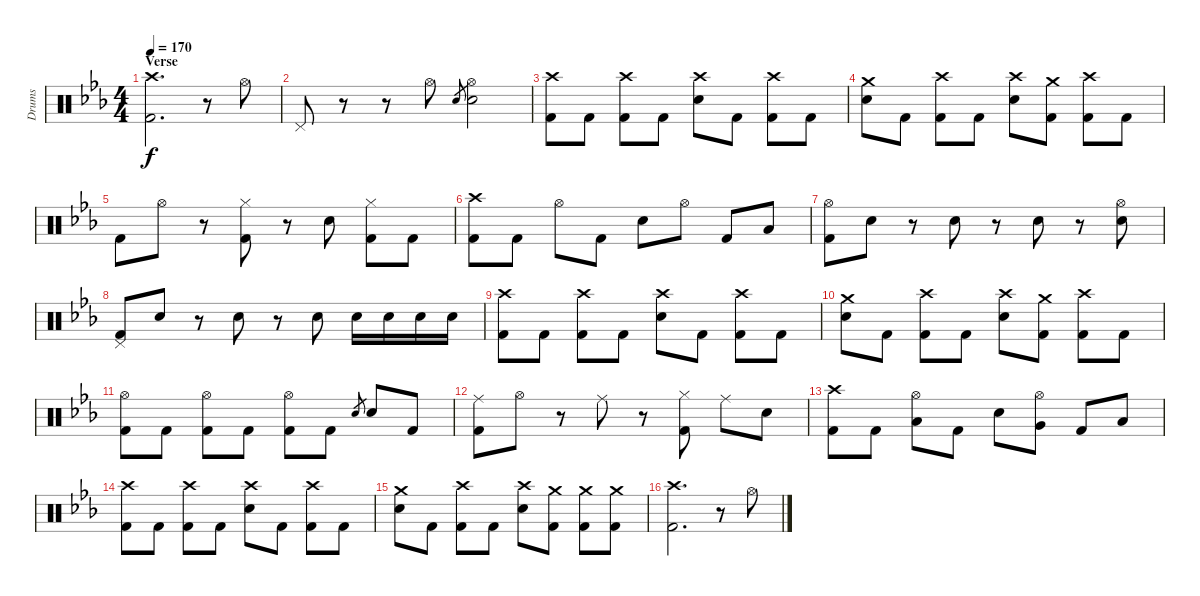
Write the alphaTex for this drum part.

\track ("Drums" "Drums") {instrument percussion}
\staff {score}
\articulation defaults
\ts (4 4)
\section ("" "Verse")
\tempo 170
\clef neutral
\ks cminor
("Crash high (hit)" "Kick (hit) 2").2{d dy f} r.8 "Hi-Hat (open)".8 |
"Pedal Hi-Hat (hit)".8 r.8 r.8 "Hi-Hat (open)".8 "Electric Snare (hit)".8{gr} ("Hi-Hat (open)" "Electric Snare (hit)").2 |
("Crash high (hit)" "Kick (hit) 2").8 "Kick (hit) 2".8 ("Crash high (hit)" "Kick (hit) 2").8 "Kick (hit) 2".8 ("Crash high (hit)" "Electric Snare (hit)").8 "Kick (hit) 2".8 ("Crash high (hit)" "Kick (hit) 2").8 "Kick (hit) 2".8 |
("Crash medium (hit)" "Electric Snare (hit)").8 "Kick (hit) 2".8 ("Crash high (hit)" "Kick (hit) 2").8 "Kick (hit) 2".8 ("Crash high (hit)" "Electric Snare (hit)").8 ("Crash medium (hit)" "Kick (hit) 2").8 ("Crash high (hit)" "Kick (hit) 2").8 "Kick (hit) 2".8 |
"Kick (hit) 2".8 "Hi-Hat (open)".8 r.8 ("Hi-Hat (closed)" "Kick (hit) 2").8 r.8 "Electric Snare (hit)".8 ("Hi-Hat (closed)" "Kick (hit) 2").8 "Kick (hit) 2".8 |
("Crash high (hit)" "Kick (hit) 2").8 "Kick (hit) 2".8 "Hi-Hat (open)".8 "Kick (hit) 2".8 "Electric Snare (hit)".8 "Hi-Hat (open)".8 "Kick (hit) 2".8 "Low Floor Tom (hit)".8 |
("Hi-Hat (open)" "Kick (hit) 2").8 "Electric Snare (hit)".8 r.8 "Electric Snare (hit)".8 r.8 "Electric Snare (hit)".8 r.8 ("Hi-Hat (open)" "Electric Snare (hit)").8 |
("Pedal Hi-Hat (hit)" "Kick (hit) 2").8 "Electric Snare (hit)".8 r.8 "Electric Snare (hit)".8 r.8 "Electric Snare (hit)".8 "Electric Snare (hit)".16 "Electric Snare (hit)".16 "Electric Snare (hit)".16 "Electric Snare (hit)".16 |
("Crash high (hit)" "Kick (hit) 2").8 "Kick (hit) 2".8 ("Crash high (hit)" "Kick (hit) 2").8 "Kick (hit) 2".8 ("Crash high (hit)" "Electric Snare (hit)").8 "Kick (hit) 2".8 ("Crash high (hit)" "Kick (hit) 2").8 "Kick (hit) 2".8 |
("Crash medium (hit)" "Electric Snare (hit)").8 "Kick (hit) 2".8 ("Crash high (hit)" "Kick (hit) 2").8 "Kick (hit) 2".8 ("Crash high (hit)" "Electric Snare (hit)").8 ("Crash medium (hit)" "Kick (hit) 2").8 ("Crash high (hit)" "Kick (hit) 2").8 "Kick (hit) 2".8 |
("Hi-Hat (open)" "Kick (hit) 2").8 "Kick (hit) 2".8 ("Hi-Hat (open)" "Kick (hit) 2").8 "Kick (hit) 2".8 ("Hi-Hat (open)" "Kick (hit) 2").8 "Kick (hit) 2".8 "Electric Snare (hit)".8{gr} "Electric Snare (hit)".8 "Kick (hit) 2".8 |
("Ride (middle)" "Kick (hit) 2").8 "Hi-Hat (open)".8 r.8 "Ride (middle)".8 r.8 ("Hi-Hat (closed)" "Kick (hit) 2").8 "Ride (middle)".8 "Electric Snare (hit)".8 |
("Crash high (hit)" "Kick (hit) 2").8 "Kick (hit) 2".8 ("Hi-Hat (open)" "Low Tom (hit)").8 "Kick (hit) 2".8 "Electric Snare (hit)".8 ("Hi-Hat (open)" "Very Low Tom (hit)").8 "Kick (hit) 2".8 "Low Floor Tom (hit)".8 |
("Crash high (hit)" "Kick (hit) 2").8 "Kick (hit) 2".8 ("Crash high (hit)" "Kick (hit) 2").8 "Kick (hit) 2".8 ("Crash high (hit)" "Electric Snare (hit)").8 "Kick (hit) 2".8 ("Crash high (hit)" "Kick (hit) 2").8 "Kick (hit) 2".8 |
("Crash medium (hit)" "Electric Snare (hit)").8 "Kick (hit) 2".8 ("Crash high (hit)" "Kick (hit) 2").8 "Kick (hit) 2".8 ("Crash high (hit)" "Electric Snare (hit)").8 ("Crash medium (hit)" "Kick (hit) 2").8 ("Crash medium (hit)" "Kick (hit) 2").8 ("Crash medium (hit)" "Kick (hit) 2").8 |
("Crash high (hit)" "Kick (hit) 2").2{d} r.8 "Hi-Hat (open)".8
